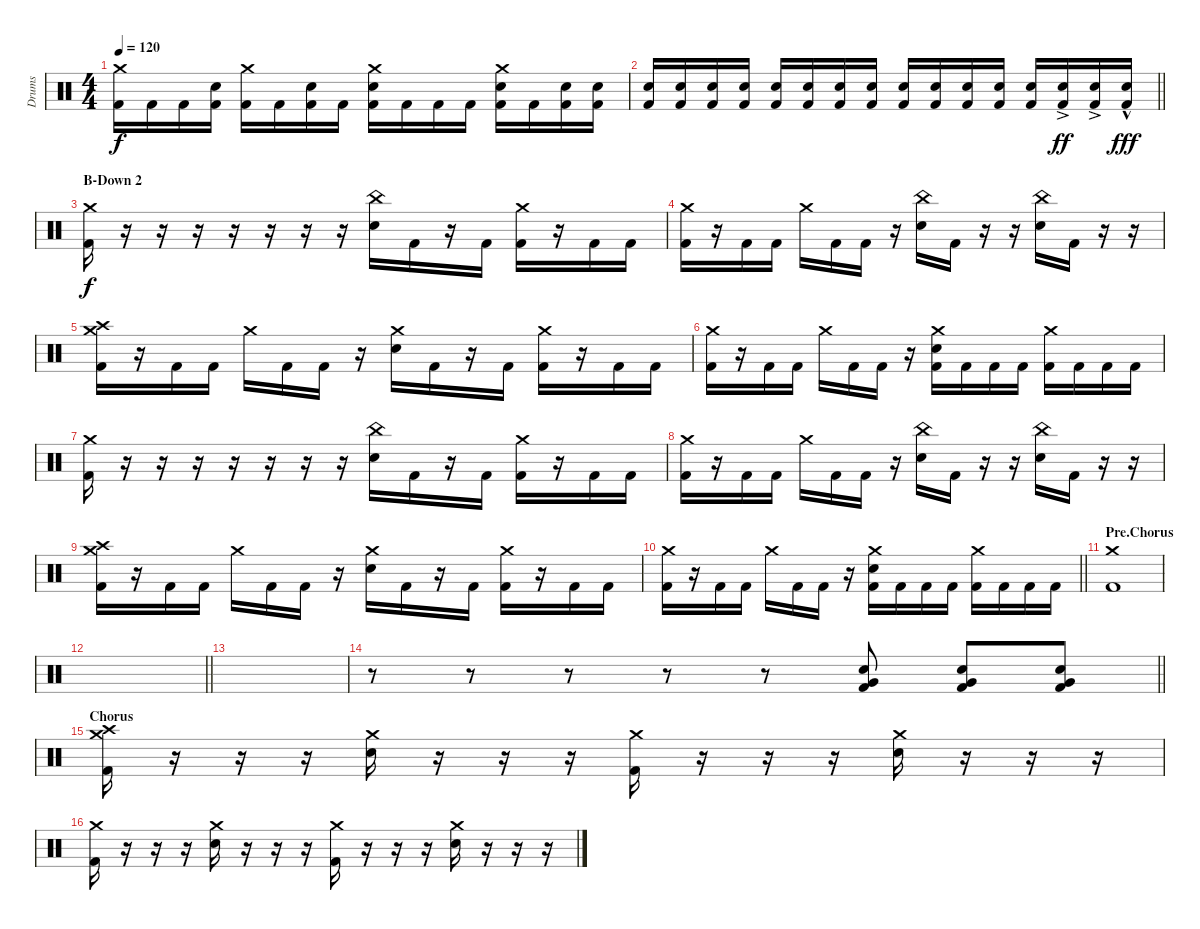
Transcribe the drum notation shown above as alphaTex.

\track ("Drums" "Drums") {instrument percussion}
\staff {score}
\articulation defaults
\ts (4 4)
\tempo 120
\clef neutral
\ks c
("Crash medium (hit)" "Kick (hit) 2").16{dy f} "Kick (hit) 2".16 "Kick (hit) 2".16 ("Electric Snare (hit)" "Kick (hit) 2").16 ("Crash medium (hit)" "Kick (hit) 2").16 "Kick (hit) 2".16 ("Electric Snare (hit)" "Kick (hit) 2").16 "Kick (hit) 2".16 ("Crash medium (hit)" "Electric Snare (hit)" "Kick (hit) 2").16 "Kick (hit) 2".16 "Kick (hit) 2".16 "Kick (hit) 2".16 ("Crash medium (hit)" "Electric Snare (hit)" "Kick (hit) 2").16 "Kick (hit) 2".16 ("Electric Snare (hit)" "Kick (hit) 2").16 ("Electric Snare (hit)" "Kick (hit) 2").16 |
\barLineRight lightlight
("Electric Snare (hit)" "Kick (hit) 2").16{volume 8} ("Electric Snare (hit)" "Kick (hit) 2").16{volume 13} ("Electric Snare (hit)" "Kick (hit) 2").16 ("Electric Snare (hit)" "Kick (hit) 2").16 ("Electric Snare (hit)" "Kick (hit) 2").16 ("Electric Snare (hit)" "Kick (hit) 2").16 ("Electric Snare (hit)" "Kick (hit) 2").16 ("Electric Snare (hit)" "Kick (hit) 2").16 ("Electric Snare (hit)" "Kick (hit) 2").16 ("Electric Snare (hit)" "Kick (hit) 2").16 ("Electric Snare (hit)" "Kick (hit) 2").16 ("Electric Snare (hit)" "Kick (hit) 2").16 ("Electric Snare (hit)" "Kick (hit) 2").16 ("Electric Snare (hit)"{ac} "Kick (hit) 2").16{dy ff} ("Electric Snare (hit)"{ac} "Kick (hit) 2").16 ("Electric Snare (hit)"{hac} "Kick (hit) 2").16{dy fff} |
\section ("" "B-Down 2")
("Crash medium (hit)" "Kick (hit) 2").16{dy f} r.16 r.16 r.16 r.16 r.16 r.16 r.16 ("China (hit)" "Electric Snare (hit)").16 "Kick (hit) 2".16 r.16 "Kick (hit) 2".16 ("Crash medium (hit)" "Kick (hit) 2").16 r.16 "Kick (hit) 2".16 "Kick (hit) 2".16 |
("Crash medium (hit)" "Kick (hit) 2").16 r.16 "Kick (hit) 2".16 "Kick (hit) 2".16 "Crash medium (hit)".16 "Kick (hit) 2".16 "Kick (hit) 2".16 r.16 ("China (hit)" "Electric Snare (hit)").16 "Kick (hit) 2".16 r.16 r.16 ("China (hit)" "Electric Snare (hit)").16 "Kick (hit) 2".16 r.16 r.16 |
("Crash medium (hit)" "Crash high (hit)" "Kick (hit) 2").16 r.16 "Kick (hit) 2".16 "Kick (hit) 2".16 "Crash medium (hit)".16 "Kick (hit) 2".16 "Kick (hit) 2".16 r.16 ("Crash medium (hit)" "Electric Snare (hit)").16 "Kick (hit) 2".16 r.16 "Kick (hit) 2".16 ("Crash medium (hit)" "Kick (hit) 2").16 r.16 "Kick (hit) 2".16 "Kick (hit) 2".16 |
("Crash medium (hit)" "Kick (hit) 2").16 r.16 "Kick (hit) 2".16 "Kick (hit) 2".16 "Crash medium (hit)".16 "Kick (hit) 2".16 "Kick (hit) 2".16 r.16 ("Crash medium (hit)" "Electric Snare (hit)" "Kick (hit) 2").16 "Kick (hit) 2".16 "Kick (hit) 2".16 "Kick (hit) 2".16 ("Crash medium (hit)" "Kick (hit) 2").16 "Kick (hit) 2".16 "Kick (hit) 2".16 "Kick (hit) 2".16 |
("Crash medium (hit)" "Kick (hit) 2").16 r.16 r.16 r.16 r.16 r.16 r.16 r.16 ("China (hit)" "Electric Snare (hit)").16 "Kick (hit) 2".16 r.16 "Kick (hit) 2".16 ("Crash medium (hit)" "Kick (hit) 2").16 r.16 "Kick (hit) 2".16 "Kick (hit) 2".16 |
("Crash medium (hit)" "Kick (hit) 2").16 r.16 "Kick (hit) 2".16 "Kick (hit) 2".16 "Crash medium (hit)".16 "Kick (hit) 2".16 "Kick (hit) 2".16 r.16 ("China (hit)" "Electric Snare (hit)").16 "Kick (hit) 2".16 r.16 r.16 ("China (hit)" "Electric Snare (hit)").16 "Kick (hit) 2".16 r.16 r.16 |
("Crash medium (hit)" "Crash high (hit)" "Kick (hit) 2").16 r.16 "Kick (hit) 2".16 "Kick (hit) 2".16 "Crash medium (hit)".16 "Kick (hit) 2".16 "Kick (hit) 2".16 r.16 ("Crash medium (hit)" "Electric Snare (hit)").16 "Kick (hit) 2".16 r.16 "Kick (hit) 2".16 ("Crash medium (hit)" "Kick (hit) 2").16 r.16 "Kick (hit) 2".16 "Kick (hit) 2".16 |
\barLineRight lightlight
("Crash medium (hit)" "Kick (hit) 2").16 r.16 "Kick (hit) 2".16 "Kick (hit) 2".16 "Crash medium (hit)".16 "Kick (hit) 2".16 "Kick (hit) 2".16 r.16 ("Crash medium (hit)" "Electric Snare (hit)" "Kick (hit) 2").16 "Kick (hit) 2".16 "Kick (hit) 2".16 "Kick (hit) 2".16 ("Crash medium (hit)" "Kick (hit) 2").16 "Kick (hit) 2".16 "Kick (hit) 2".16 "Kick (hit) 2".16 |
\section ("" "Pre.Chorus")
("Crash medium (hit)" "Kick (hit) 2").1 |
\barLineRight lightlight
|
|
\barLineRight lightlight
r.8 r.8 r.8 r.8 r.8 ("Electric Snare (hit)" "Very Low Tom (hit)" "Kick (hit) 2").8 ("Electric Snare (hit)" "Very Low Tom (hit)" "Kick (hit) 2").8 ("Electric Snare (hit)" "Very Low Tom (hit)" "Kick (hit) 2").8 |
\section ("" "Chorus")
("Crash medium (hit)" "Crash high (hit)" "Kick (hit) 2").16 r.16 r.16 r.16 ("Crash medium (hit)" "Electric Snare (hit)").16 r.16 r.16 r.16 ("Crash medium (hit)" "Kick (hit) 2").16 r.16 r.16 r.16 ("Crash medium (hit)" "Electric Snare (hit)").16 r.16 r.16 r.16 |
("Crash medium (hit)" "Kick (hit) 2").16 r.16 r.16 r.16 ("Crash medium (hit)" "Electric Snare (hit)").16 r.16 r.16 r.16 ("Crash medium (hit)" "Kick (hit) 2").16 r.16 r.16 r.16 ("Crash medium (hit)" "Electric Snare (hit)").16 r.16 r.16 r.16
